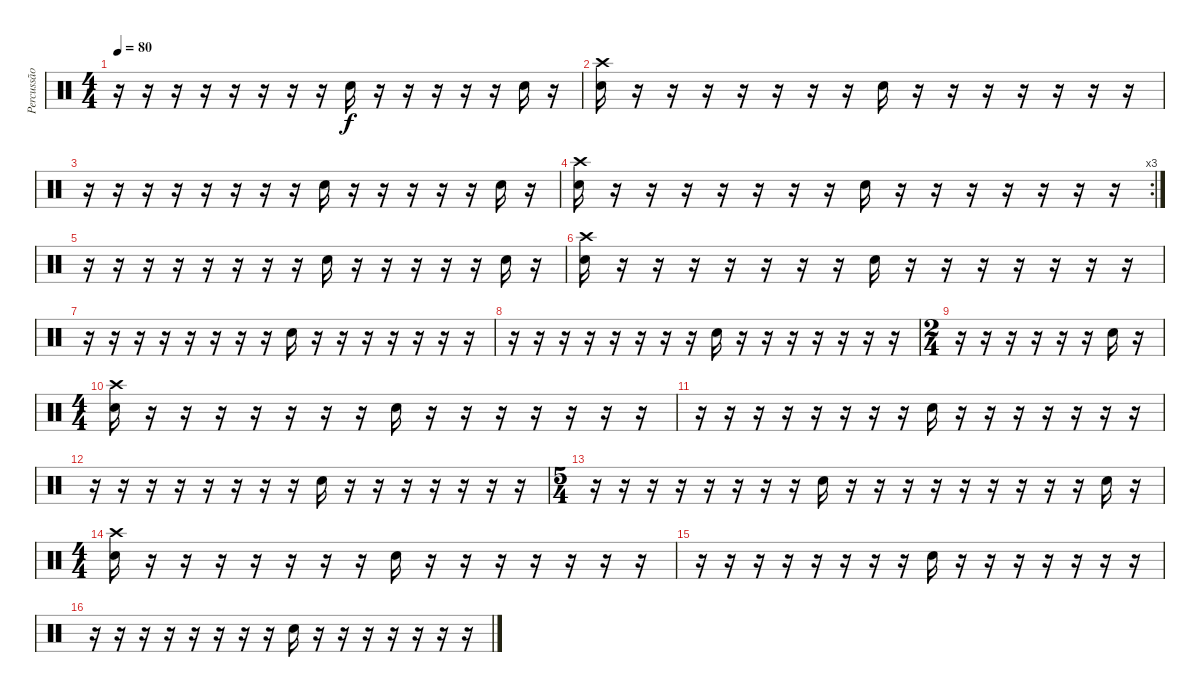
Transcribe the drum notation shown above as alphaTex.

\track ("Percussão" "Percussão") {instrument percussion}
\staff {score}
\articulation defaults
\ts (4 4)
\tempo 80
\clef neutral
\ks c
r.16{dy f} r.16 r.16 r.16 r.16 r.16 r.16 r.16 "Electric Snare (hit)".16 r.16 r.16 r.16 r.16 r.16 "Electric Snare (hit)".16 r.16 |
("Crash high (hit)" "Electric Snare (hit)").16 r.16 r.16 r.16 r.16 r.16 r.16 r.16 "Electric Snare (hit)".16 r.16 r.16 r.16 r.16 r.16 r.16 r.16 |
r.16 r.16 r.16 r.16 r.16 r.16 r.16 r.16 "Electric Snare (hit)".16 r.16 r.16 r.16 r.16 r.16 "Electric Snare (hit)".16 r.16 |
\rc 3
("Crash high (hit)" "Electric Snare (hit)").16 r.16 r.16 r.16 r.16 r.16 r.16 r.16 "Electric Snare (hit)".16 r.16 r.16 r.16 r.16 r.16 r.16 r.16 |
r.16 r.16 r.16 r.16 r.16 r.16 r.16 r.16 "Electric Snare (hit)".16 r.16 r.16 r.16 r.16 r.16 "Electric Snare (hit)".16 r.16 |
("Crash high (hit)" "Electric Snare (hit)").16 r.16 r.16 r.16 r.16 r.16 r.16 r.16 "Electric Snare (hit)".16 r.16 r.16 r.16 r.16 r.16 r.16 r.16 |
r.16 r.16 r.16 r.16 r.16 r.16 r.16 r.16 "Electric Snare (hit)".16 r.16 r.16 r.16 r.16 r.16 r.16 r.16 |
r.16 r.16 r.16 r.16 r.16 r.16 r.16 r.16 "Electric Snare (hit)".16 r.16 r.16 r.16 r.16 r.16 r.16 r.16 |
\ts (2 4)
r.16 r.16 r.16 r.16 r.16 r.16 "Electric Snare (hit)".16 r.16 |
\ts (4 4)
("Crash high (hit)" "Electric Snare (hit)").16 r.16 r.16 r.16 r.16 r.16 r.16 r.16 "Electric Snare (hit)".16 r.16 r.16 r.16 r.16 r.16 r.16 r.16 |
r.16 r.16 r.16 r.16 r.16 r.16 r.16 r.16 "Electric Snare (hit)".16 r.16 r.16 r.16 r.16 r.16 r.16 r.16 |
r.16 r.16 r.16 r.16 r.16 r.16 r.16 r.16 "Electric Snare (hit)".16 r.16 r.16 r.16 r.16 r.16 r.16 r.16 |
\ts (5 4)
r.16 r.16 r.16 r.16 r.16 r.16 r.16 r.16 "Electric Snare (hit)".16 r.16 r.16 r.16 r.16 r.16 r.16 r.16 r.16 r.16 "Electric Snare (hit)".16 r.16 |
\ts (4 4)
("Crash high (hit)" "Electric Snare (hit)").16 r.16 r.16 r.16 r.16 r.16 r.16 r.16 "Electric Snare (hit)".16 r.16 r.16 r.16 r.16 r.16 r.16 r.16 |
r.16 r.16 r.16 r.16 r.16 r.16 r.16 r.16 "Electric Snare (hit)".16 r.16 r.16 r.16 r.16 r.16 r.16 r.16 |
r.16 r.16 r.16 r.16 r.16 r.16 r.16 r.16 "Electric Snare (hit)".16 r.16 r.16 r.16 r.16 r.16 r.16 r.16
